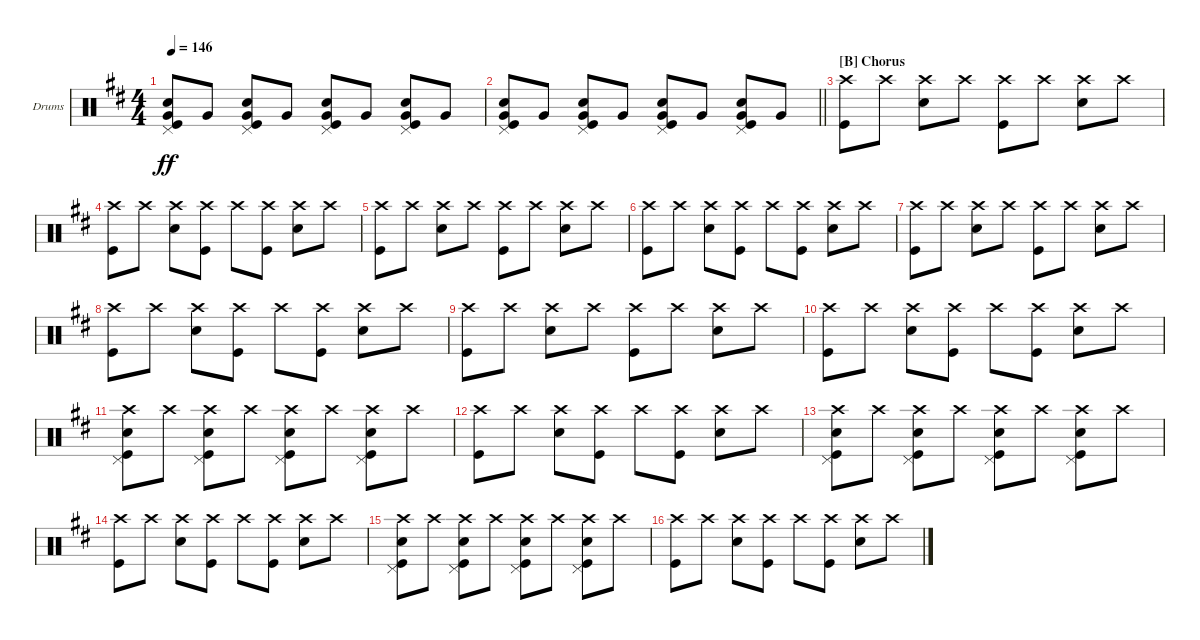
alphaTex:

\bracketExtendMode groupsimilarinstruments
\firstSystemTrackNameOrientation horizontal
\otherSystemsTrackNameOrientation horizontal
\track ("Fabrizio Moretti" "Drums") {instrument percussion}
\staff {score}
\articulation defaults
\ts (4 4)
\tempo 146
\clef neutral
\ks d
("Very Low Tom (hit)" "Pedal Hi-Hat (hit)" "Snare (hit) 2" "Kick (hit)").8{dy ff} "Very Low Tom (hit)".8 ("Very Low Tom (hit)" "Pedal Hi-Hat (hit)" "Snare (hit) 2" "Kick (hit)").8 "Very Low Tom (hit)".8 ("Very Low Tom (hit)" "Pedal Hi-Hat (hit)" "Snare (hit) 2" "Kick (hit)").8 "Very Low Tom (hit)".8 ("Very Low Tom (hit)" "Pedal Hi-Hat (hit)" "Snare (hit) 2" "Kick (hit)").8 "Very Low Tom (hit)".8 |
\barLineRight lightlight
("Very Low Tom (hit)" "Pedal Hi-Hat (hit)" "Snare (hit) 2" "Kick (hit)").8 "Very Low Tom (hit)".8 ("Very Low Tom (hit)" "Pedal Hi-Hat (hit)" "Snare (hit) 2" "Kick (hit)").8 "Very Low Tom (hit)".8 ("Very Low Tom (hit)" "Pedal Hi-Hat (hit)" "Snare (hit) 2" "Kick (hit)").8 "Very Low Tom (hit)".8 ("Very Low Tom (hit)" "Pedal Hi-Hat (hit)" "Snare (hit) 2" "Kick (hit)").8 "Very Low Tom (hit)".8 |
\section ("B" "Chorus")
("Crash high (hit)" "Kick (hit)").8 "Crash high (hit)".8 ("Crash high (hit)" "Snare (hit) 2").8 "Crash high (hit)".8 ("Crash high (hit)" "Kick (hit)").8 "Crash high (hit)".8 ("Crash high (hit)" "Snare (hit) 2").8 "Crash high (hit)".8 |
("Crash high (hit)" "Kick (hit)").8 "Crash high (hit)".8 ("Crash high (hit)" "Snare (hit) 2").8 ("Crash high (hit)" "Kick (hit)").8 "Crash high (hit)".8 ("Crash high (hit)" "Kick (hit)").8 ("Crash high (hit)" "Snare (hit) 2").8 "Crash high (hit)".8 |
("Crash high (hit)" "Kick (hit)").8 "Crash high (hit)".8 ("Crash high (hit)" "Snare (hit) 2").8 "Crash high (hit)".8 ("Crash high (hit)" "Kick (hit)").8 "Crash high (hit)".8 ("Crash high (hit)" "Snare (hit) 2").8 "Crash high (hit)".8 |
("Crash high (hit)" "Kick (hit)").8 "Crash high (hit)".8 ("Crash high (hit)" "Snare (hit) 2").8 ("Crash high (hit)" "Kick (hit)").8 "Crash high (hit)".8 ("Crash high (hit)" "Kick (hit)").8 ("Crash high (hit)" "Snare (hit) 2").8 "Crash high (hit)".8 |
("Crash high (hit)" "Kick (hit)").8 "Crash high (hit)".8 ("Crash high (hit)" "Snare (hit) 2").8 "Crash high (hit)".8 ("Crash high (hit)" "Kick (hit)").8 "Crash high (hit)".8 ("Crash high (hit)" "Snare (hit) 2").8 "Crash high (hit)".8 |
("Crash high (hit)" "Kick (hit)").8 "Crash high (hit)".8 ("Crash high (hit)" "Snare (hit) 2").8 ("Crash high (hit)" "Kick (hit)").8 "Crash high (hit)".8 ("Crash high (hit)" "Kick (hit)").8 ("Crash high (hit)" "Snare (hit) 2").8 "Crash high (hit)".8 |
("Crash high (hit)" "Kick (hit)").8 "Crash high (hit)".8 ("Crash high (hit)" "Snare (hit) 2").8 "Crash high (hit)".8 ("Crash high (hit)" "Kick (hit)").8 "Crash high (hit)".8 ("Crash high (hit)" "Snare (hit) 2").8 "Crash high (hit)".8 |
("Crash high (hit)" "Kick (hit)").8 "Crash high (hit)".8 ("Crash high (hit)" "Snare (hit) 2").8 ("Crash high (hit)" "Kick (hit)").8 "Crash high (hit)".8 ("Crash high (hit)" "Kick (hit)").8 ("Crash high (hit)" "Snare (hit) 2").8 "Crash high (hit)".8 |
("Crash high (hit)" "Pedal Hi-Hat (hit)" "Snare (hit) 2" "Kick (hit)").8 "Crash high (hit)".8 ("Crash high (hit)" "Pedal Hi-Hat (hit)" "Snare (hit) 2" "Kick (hit)").8 "Crash high (hit)".8 ("Crash high (hit)" "Pedal Hi-Hat (hit)" "Snare (hit) 2" "Kick (hit)").8 "Crash high (hit)".8 ("Crash high (hit)" "Pedal Hi-Hat (hit)" "Snare (hit) 2" "Kick (hit)").8 "Crash high (hit)".8 |
("Crash high (hit)" "Kick (hit)").8 "Crash high (hit)".8 ("Crash high (hit)" "Snare (hit) 2").8 ("Crash high (hit)" "Kick (hit)").8 "Crash high (hit)".8 ("Crash high (hit)" "Kick (hit)").8 ("Crash high (hit)" "Snare (hit) 2").8 "Crash high (hit)".8 |
("Crash high (hit)" "Pedal Hi-Hat (hit)" "Snare (hit) 2" "Kick (hit)").8 "Crash high (hit)".8 ("Crash high (hit)" "Pedal Hi-Hat (hit)" "Snare (hit) 2" "Kick (hit)").8 "Crash high (hit)".8 ("Crash high (hit)" "Pedal Hi-Hat (hit)" "Snare (hit) 2" "Kick (hit)").8 "Crash high (hit)".8 ("Crash high (hit)" "Pedal Hi-Hat (hit)" "Snare (hit) 2" "Kick (hit)").8 "Crash high (hit)".8 |
("Crash high (hit)" "Kick (hit)").8 "Crash high (hit)".8 ("Crash high (hit)" "Snare (hit) 2").8 ("Crash high (hit)" "Kick (hit)").8 "Crash high (hit)".8 ("Crash high (hit)" "Kick (hit)").8 ("Crash high (hit)" "Snare (hit) 2").8 "Crash high (hit)".8 |
("Crash high (hit)" "Pedal Hi-Hat (hit)" "Snare (hit) 2" "Kick (hit)").8 "Crash high (hit)".8 ("Crash high (hit)" "Pedal Hi-Hat (hit)" "Snare (hit) 2" "Kick (hit)").8 "Crash high (hit)".8 ("Crash high (hit)" "Pedal Hi-Hat (hit)" "Snare (hit) 2" "Kick (hit)").8 "Crash high (hit)".8 ("Crash high (hit)" "Pedal Hi-Hat (hit)" "Snare (hit) 2" "Kick (hit)").8 "Crash high (hit)".8 |
("Crash high (hit)" "Kick (hit)").8 "Crash high (hit)".8 ("Crash high (hit)" "Snare (hit) 2").8 ("Crash high (hit)" "Kick (hit)").8 "Crash high (hit)".8 ("Crash high (hit)" "Kick (hit)").8 ("Crash high (hit)" "Snare (hit) 2").8 "Crash high (hit)".8
